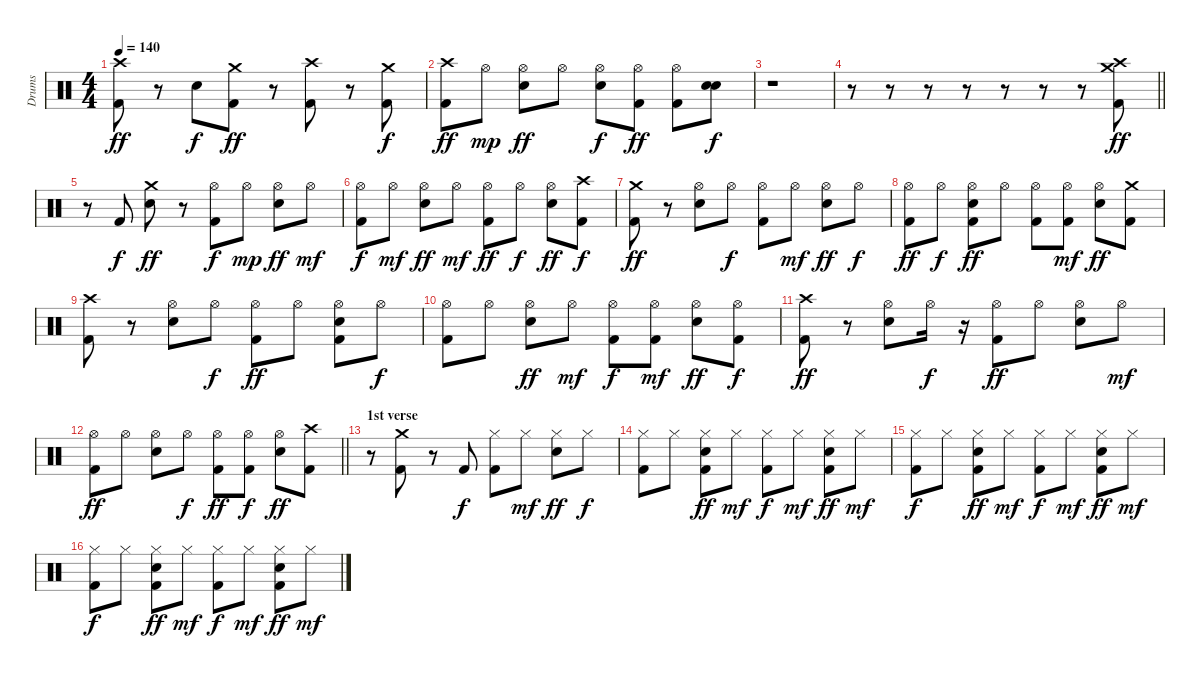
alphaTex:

\track ("Drums" "Drums") {instrument percussion}
\staff {score}
\articulation defaults
\ts (4 4)
\tempo 140
\clef neutral
\ks c
("Crash high (hit)" "Kick (hit) 2").8{dy ff} r.8 "Electric Snare (hit)".8{dy f} ("Crash medium (hit)" "Kick (hit) 2").8{dy ff} r.8 ("Crash high (hit)" "Kick (hit) 2").8 r.8 ("Crash medium (hit)" "Kick (hit) 2").8{dy f} |
("Crash high (hit)" "Kick (hit) 2").8{dy ff} "Hi-Hat (open)".8{dy mp} ("Hi-Hat (open)" "Electric Snare (hit)").8{dy ff} "Hi-Hat (open)".8 ("Hi-Hat (open)" "Electric Snare (hit)").8{dy f} ("Hi-Hat (open)" "Kick (hit) 2").8{dy ff} ("Hi-Hat (open)" "Kick (hit) 2").8 ("Electric Snare (hit)" "Electric Snare (hit)").8{dy f} |
r.1 |
\barLineRight lightlight
r.8 r.8 r.8 r.8 r.8 r.8 r.8 ("Crash high (hit)" "Crash medium (hit)" "Kick (hit) 2").8{dy ff} |
r.8 "Kick (hit) 2".8{dy f} ("Crash medium (hit)" "Electric Snare (hit)").8{dy ff} r.8 ("Hi-Hat (open)" "Kick (hit) 2").8{dy f} "Hi-Hat (open)".8{dy mp} ("Hi-Hat (open)" "Electric Snare (hit)").8{dy ff} "Hi-Hat (open)".8{dy mf} |
("Hi-Hat (open)" "Kick (hit) 2").8{dy f} "Hi-Hat (open)".8{dy mf} ("Hi-Hat (open)" "Electric Snare (hit)").8{dy ff} "Hi-Hat (open)".8{dy mf} ("Hi-Hat (open)" "Kick (hit) 2").8{dy ff} "Hi-Hat (open)".8{dy f} ("Hi-Hat (open)" "Electric Snare (hit)").8{dy ff} ("Crash high (hit)" "Kick (hit) 2").8{dy f} |
("Crash medium (hit)" "Kick (hit) 2").8{dy ff} r.8 ("Hi-Hat (open)" "Electric Snare (hit)").8 "Hi-Hat (open)".8{dy f} ("Hi-Hat (open)" "Kick (hit) 2").8 "Hi-Hat (open)".8{dy mf} ("Hi-Hat (open)" "Electric Snare (hit)").8{dy ff} "Hi-Hat (open)".8{dy f} |
("Hi-Hat (open)" "Kick (hit) 2").8{dy ff} "Hi-Hat (open)".8{dy f} ("Hi-Hat (open)" "Electric Snare (hit)" "Kick (hit) 2").8{dy ff} "Hi-Hat (open)".8 ("Hi-Hat (open)" "Kick (hit) 2").8 ("Hi-Hat (open)" "Kick (hit) 2").8{dy mf} ("Hi-Hat (open)" "Electric Snare (hit)").8{dy ff} ("Crash medium (hit)" "Kick (hit) 2").8 |
("Crash high (hit)" "Kick (hit) 2").8 r.8 ("Hi-Hat (open)" "Electric Snare (hit)").8 "Hi-Hat (open)".8{dy f} ("Hi-Hat (open)" "Kick (hit) 2").8{dy ff} "Hi-Hat (open)".8 ("Hi-Hat (open)" "Electric Snare (hit)" "Kick (hit) 2").8 "Hi-Hat (open)".8{dy f} |
("Hi-Hat (open)" "Kick (hit) 2").8 "Hi-Hat (open)".8 ("Hi-Hat (open)" "Electric Snare (hit)").8{dy ff} "Hi-Hat (open)".8{dy mf} ("Hi-Hat (open)" "Kick (hit) 2").8{dy f} ("Hi-Hat (open)" "Kick (hit) 2").8{dy mf} ("Hi-Hat (open)" "Electric Snare (hit)").8{dy ff} ("Hi-Hat (open)" "Kick (hit) 2").8{dy f} |
("Crash high (hit)" "Kick (hit) 2").8{dy ff} r.8 ("Hi-Hat (open)" "Electric Snare (hit)").8 "Hi-Hat (open)".16{dy f} r.16 ("Hi-Hat (open)" "Kick (hit) 2").8{dy ff} "Hi-Hat (open)".8 ("Hi-Hat (open)" "Electric Snare (hit)").8 "Hi-Hat (open)".8{dy mf} |
\barLineRight lightlight
("Hi-Hat (open)" "Kick (hit) 2").8{dy ff} "Hi-Hat (open)".8 ("Hi-Hat (open)" "Electric Snare (hit)").8 "Hi-Hat (open)".8{dy f} ("Hi-Hat (open)" "Kick (hit) 2").8{dy ff} ("Hi-Hat (open)" "Kick (hit) 2").8{dy f} ("Hi-Hat (open)" "Electric Snare (hit)").8{dy ff} ("Crash high (hit)" "Kick (hit) 2").8 |
\section ("" "1st verse")
r.8 ("Crash medium (hit)" "Kick (hit) 2").8 r.8 "Kick (hit) 2".8{dy f} ("Hi-Hat (closed)" "Kick (hit) 2").8 "Hi-Hat (closed)".8{dy mf} ("Hi-Hat (closed)" "Electric Snare (hit)").8{dy ff} "Hi-Hat (closed)".8{dy f} |
("Hi-Hat (closed)" "Kick (hit) 2").8 "Hi-Hat (closed)".8 ("Hi-Hat (closed)" "Electric Snare (hit)" "Kick (hit) 2").8{dy ff} "Hi-Hat (closed)".8{dy mf} ("Hi-Hat (closed)" "Kick (hit) 2").8{dy f} "Hi-Hat (closed)".8{dy mf} ("Hi-Hat (closed)" "Electric Snare (hit)" "Kick (hit) 2").8{dy ff} "Hi-Hat (closed)".8{dy mf} |
("Hi-Hat (closed)" "Kick (hit) 2").8{dy f} "Hi-Hat (closed)".8 ("Hi-Hat (closed)" "Electric Snare (hit)" "Kick (hit) 2").8{dy ff} "Hi-Hat (closed)".8{dy mf} ("Hi-Hat (closed)" "Kick (hit) 2").8{dy f} "Hi-Hat (closed)".8{dy mf} ("Hi-Hat (closed)" "Electric Snare (hit)" "Kick (hit) 2").8{dy ff} "Hi-Hat (closed)".8{dy mf} |
("Hi-Hat (closed)" "Kick (hit) 2").8{dy f} "Hi-Hat (closed)".8 ("Hi-Hat (closed)" "Electric Snare (hit)" "Kick (hit) 2").8{dy ff} "Hi-Hat (closed)".8{dy mf} ("Hi-Hat (closed)" "Kick (hit) 2").8{dy f} "Hi-Hat (closed)".8{dy mf} ("Hi-Hat (closed)" "Electric Snare (hit)" "Kick (hit) 2").8{dy ff} "Hi-Hat (closed)".8{dy mf}
